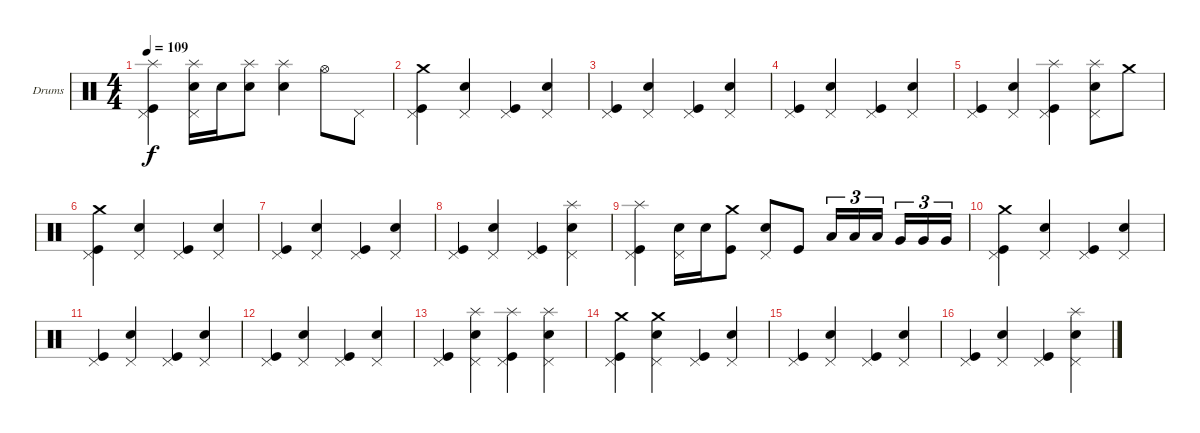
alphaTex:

\bracketExtendMode groupsimilarinstruments
\firstSystemTrackNameOrientation horizontal
\otherSystemsTrackNameOrientation horizontal
\track ("Drumkit" "Drums") {instrument percussion}
\staff {score}
\articulation defaults
\ts (4 4)
\tempo 109
\clef neutral
\ks c
("Splash (hit)" "Pedal Hi-Hat (hit)" "Kick (hit)").4{dy f} ("Splash (hit)" "Pedal Hi-Hat (hit)" "Snare (hit) 2").16 "Snare (hit) 2".16 ("Splash (hit)" "Snare (hit) 2").8 ("Splash (hit)" "Snare (hit) 2").4 "Hi-Hat (open)".8 "Pedal Hi-Hat (hit)".8 |
("Crash medium (hit)" "Pedal Hi-Hat (hit)" "Kick (hit)").4 ("Pedal Hi-Hat (hit)" "Snare (hit) 2").4 ("Pedal Hi-Hat (hit)" "Kick (hit)").4 ("Pedal Hi-Hat (hit)" "Snare (hit) 2").4 |
("Pedal Hi-Hat (hit)" "Kick (hit)").4 ("Pedal Hi-Hat (hit)" "Snare (hit) 2").4 ("Pedal Hi-Hat (hit)" "Kick (hit)").4 ("Pedal Hi-Hat (hit)" "Snare (hit) 2").4 |
("Pedal Hi-Hat (hit)" "Kick (hit)").4 ("Pedal Hi-Hat (hit)" "Snare (hit) 2").4 ("Pedal Hi-Hat (hit)" "Kick (hit)").4 ("Pedal Hi-Hat (hit)" "Snare (hit) 2").4 |
("Pedal Hi-Hat (hit)" "Kick (hit)").4 ("Pedal Hi-Hat (hit)" "Snare (hit) 2").4 ("Splash (hit)" "Pedal Hi-Hat (hit)" "Kick (hit)").4 ("Splash (hit)" "Pedal Hi-Hat (hit)" "Snare (hit) 2").8 "Crash medium (hit)".8 |
("Crash medium (hit)" "Pedal Hi-Hat (hit)" "Kick (hit)").4 ("Pedal Hi-Hat (hit)" "Snare (hit) 2").4 ("Pedal Hi-Hat (hit)" "Kick (hit)").4 ("Pedal Hi-Hat (hit)" "Snare (hit) 2").4 |
("Pedal Hi-Hat (hit)" "Kick (hit)").4 ("Pedal Hi-Hat (hit)" "Snare (hit) 2").4 ("Pedal Hi-Hat (hit)" "Kick (hit)").4 ("Pedal Hi-Hat (hit)" "Snare (hit) 2").4 |
("Pedal Hi-Hat (hit)" "Kick (hit)").4 ("Pedal Hi-Hat (hit)" "Snare (hit) 2").4 ("Pedal Hi-Hat (hit)" "Kick (hit)").4 ("Splash (hit)" "Pedal Hi-Hat (hit)" "Snare (hit) 2").4 |
("Splash (hit)" "Pedal Hi-Hat (hit)" "Kick (hit)").4 ("Pedal Hi-Hat (hit)" "Snare (hit) 2").16 "Snare (hit) 2".16 ("Crash medium (hit)" "Kick (hit)").8 ("Pedal Hi-Hat (hit)" "Snare (hit) 2").8 "Kick (hit)".8 "Low Tom (hit)".16{tu (3 2)} "Low Tom (hit)".16{tu (3 2)} "Low Tom (hit)".16{tu (3 2)} "Very Low Tom (hit)".16{tu (3 2)} "Very Low Tom (hit)".16{tu (3 2)} "Very Low Tom (hit)".16{tu (3 2)} |
("Crash medium (hit)" "Pedal Hi-Hat (hit)" "Kick (hit)").4 ("Pedal Hi-Hat (hit)" "Snare (hit) 2").4 ("Pedal Hi-Hat (hit)" "Kick (hit)").4 ("Pedal Hi-Hat (hit)" "Snare (hit) 2").4 |
("Pedal Hi-Hat (hit)" "Kick (hit)").4 ("Pedal Hi-Hat (hit)" "Snare (hit) 2").4 ("Pedal Hi-Hat (hit)" "Kick (hit)").4 ("Pedal Hi-Hat (hit)" "Snare (hit) 2").4 |
("Pedal Hi-Hat (hit)" "Kick (hit)").4 ("Pedal Hi-Hat (hit)" "Snare (hit) 2").4 ("Pedal Hi-Hat (hit)" "Kick (hit)").4 ("Pedal Hi-Hat (hit)" "Snare (hit) 2").4 |
("Pedal Hi-Hat (hit)" "Kick (hit)").4 ("Splash (hit)" "Pedal Hi-Hat (hit)" "Snare (hit) 2").4 ("Splash (hit)" "Pedal Hi-Hat (hit)" "Kick (hit)").4 ("Splash (hit)" "Pedal Hi-Hat (hit)" "Snare (hit) 2").4 |
("Crash medium (hit)" "Pedal Hi-Hat (hit)" "Kick (hit)").4 ("Crash medium (hit)" "Pedal Hi-Hat (hit)" "Snare (hit) 2").4 ("Pedal Hi-Hat (hit)" "Kick (hit)").4 ("Pedal Hi-Hat (hit)" "Snare (hit) 2").4 |
("Pedal Hi-Hat (hit)" "Kick (hit)").4 ("Pedal Hi-Hat (hit)" "Snare (hit) 2").4 ("Pedal Hi-Hat (hit)" "Kick (hit)").4 ("Pedal Hi-Hat (hit)" "Snare (hit) 2").4 |
("Pedal Hi-Hat (hit)" "Kick (hit)").4 ("Pedal Hi-Hat (hit)" "Snare (hit) 2").4 ("Pedal Hi-Hat (hit)" "Kick (hit)").4 ("Splash (hit)" "Pedal Hi-Hat (hit)" "Snare (hit) 2").4
